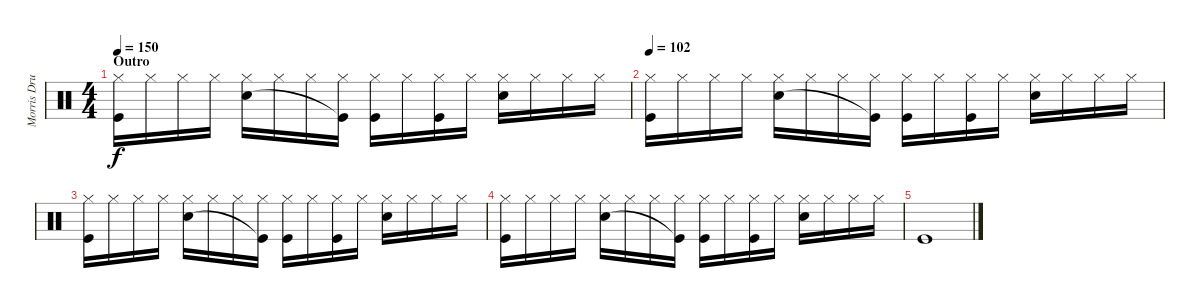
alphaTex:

\track ("Morris Drums" "Morris Dru") {instrument percussion}
\staff {score}
\articulation defaults
\ts (4 4)
\section ("" "Outro")
\tempo 150
\clef neutral
\ks c
("Hi-Hat (closed)" "Kick (hit)").16{dy f} "Hi-Hat (closed)".16 "Hi-Hat (closed)".16 "Hi-Hat (closed)".16 ("Hi-Hat (closed)" "Snare (hit) 2").16 "Hi-Hat (closed)".16 "Hi-Hat (closed)".16 ("Hi-Hat (closed)" "Kick (hit)"{t}).16 ("Hi-Hat (closed)" "Kick (hit)").16 "Hi-Hat (closed)".16 ("Hi-Hat (closed)" "Kick (hit)").16 "Hi-Hat (closed)".16 ("Hi-Hat (closed)" "Snare (hit) 2").16 "Hi-Hat (closed)".16 "Hi-Hat (closed)".16 "Hi-Hat (closed)".16 |
\tempo 102
("Hi-Hat (closed)" "Kick (hit)").16 "Hi-Hat (closed)".16 "Hi-Hat (closed)".16 "Hi-Hat (closed)".16 ("Hi-Hat (closed)" "Snare (hit) 2").16 "Hi-Hat (closed)".16 "Hi-Hat (closed)".16 ("Hi-Hat (closed)" "Kick (hit)"{t}).16 ("Hi-Hat (closed)" "Kick (hit)").16 "Hi-Hat (closed)".16 ("Hi-Hat (closed)" "Kick (hit)").16 "Hi-Hat (closed)".16 ("Hi-Hat (closed)" "Snare (hit) 2").16 "Hi-Hat (closed)".16 "Hi-Hat (closed)".16 "Hi-Hat (closed)".16 |
("Hi-Hat (closed)" "Kick (hit)").16 "Hi-Hat (closed)".16 "Hi-Hat (closed)".16 "Hi-Hat (closed)".16 ("Hi-Hat (closed)" "Snare (hit) 2").16 "Hi-Hat (closed)".16 "Hi-Hat (closed)".16 ("Hi-Hat (closed)" "Kick (hit)"{t}).16 ("Hi-Hat (closed)" "Kick (hit)").16 "Hi-Hat (closed)".16 ("Hi-Hat (closed)" "Kick (hit)").16 "Hi-Hat (closed)".16 ("Hi-Hat (closed)" "Snare (hit) 2").16 "Hi-Hat (closed)".16 "Hi-Hat (closed)".16 "Hi-Hat (closed)".16 |
("Hi-Hat (closed)" "Kick (hit)").16 "Hi-Hat (closed)".16 "Hi-Hat (closed)".16 "Hi-Hat (closed)".16 ("Hi-Hat (closed)" "Snare (hit) 2").16 "Hi-Hat (closed)".16 "Hi-Hat (closed)".16 ("Hi-Hat (closed)" "Kick (hit)"{t}).16 ("Hi-Hat (closed)" "Kick (hit)").16 "Hi-Hat (closed)".16 ("Hi-Hat (closed)" "Kick (hit)").16 "Hi-Hat (closed)".16 ("Hi-Hat (closed)" "Snare (hit) 2").16 "Hi-Hat (closed)".16 "Hi-Hat (closed)".16 "Hi-Hat (closed)".16 |
"Kick (hit)".1
